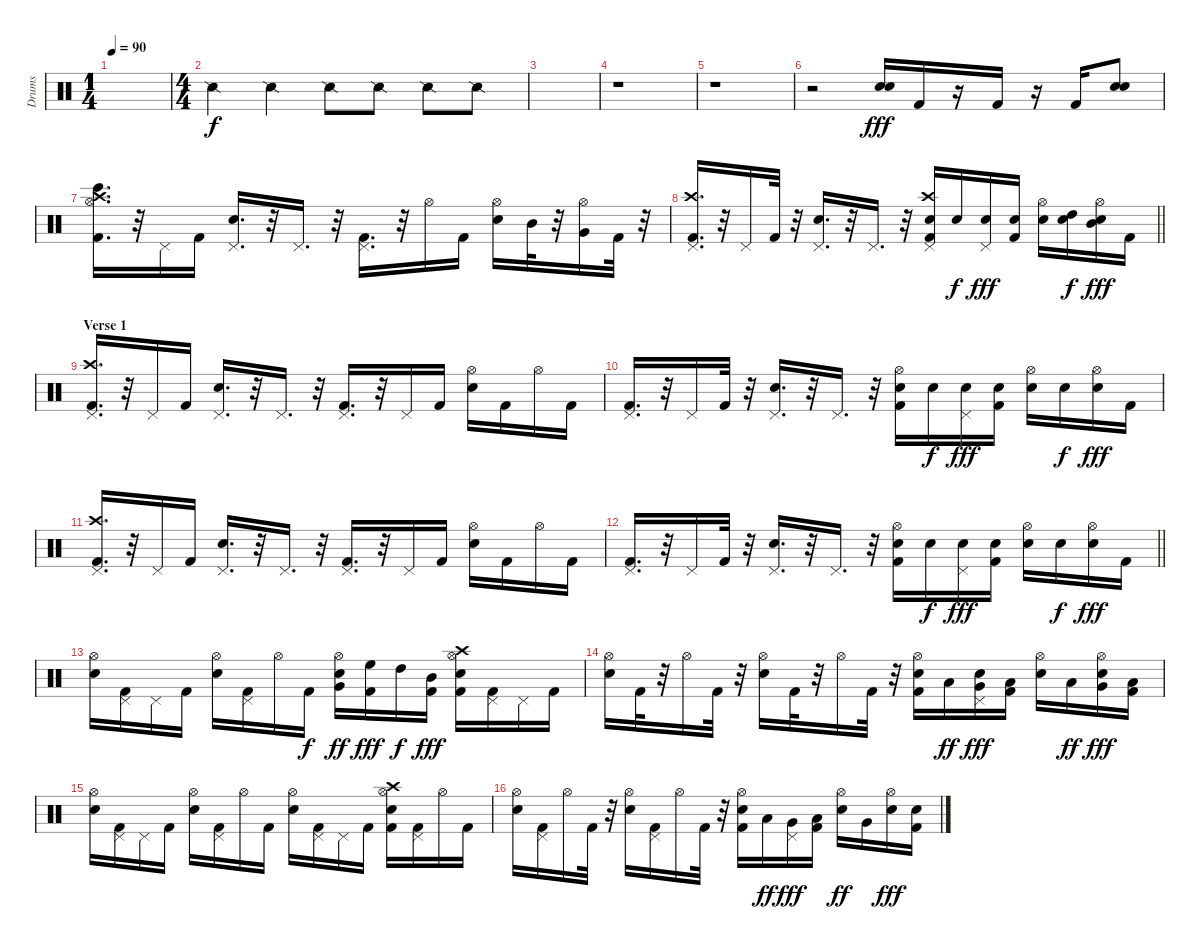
\track ("Drums" "Drums") {instrument percussion}
\staff {score}
\articulation defaults
\ts (1 4)
\tempo 90
\clef neutral
\ks c
|
\ts (4 4)
"Snare (side stick) 2".4 "Snare (side stick) 2".4 "Snare (side stick) 2".8 "Snare (side stick) 2".8 "Snare (side stick) 2".8 "Snare (side stick) 2".8 |
|
r.1 |
r.1 |
r.2 ("Electric Snare (hit)" "Electric Snare (hit)").16{dy fff} "Kick (hit) 2".16 r.16 "Kick (hit) 2".16 r.16 "Kick (hit) 2".16 ("Electric Snare (hit)" "Electric Snare (hit)").8 |
("Bongo High (hit)" "Crash high (hit)" "Kick (hit) 2" "Hi-Hat (open)").16{d} r.32 "Pedal Hi-Hat (hit)".16 "Kick (hit) 2".16 ("Electric Snare (hit)" "Pedal Hi-Hat (hit)").16{d} r.32 "Pedal Hi-Hat (hit)".16{d} r.32 ("Kick (hit) 2" "Pedal Hi-Hat (hit)").16{d} r.32 "Hi-Hat (open)".16 "Kick (hit) 2".16 ("Electric Snare (hit)" "Hi-Hat (open)").16 "Mid Tom (hit)".32 r.32 ("Hi-Hat (open)" "Very Low Tom (hit)").16 "Kick (hit) 2".32 r.32 |
\barLineRight lightlight
("Crash high (hit)" "Kick (hit) 2" "Pedal Hi-Hat (hit)").16{d} r.32 "Pedal Hi-Hat (hit)".16 "Kick (hit) 2".32 r.32 ("Electric Snare (hit)" "Pedal Hi-Hat (hit)").16{d} r.32 "Pedal Hi-Hat (hit)".16{d} r.32 ("Electric Snare (hit)" "Crash high (hit)" "Kick (hit) 2" "Pedal Hi-Hat (hit)").16 "Electric Snare (hit)".16{dy f} ("Electric Snare (hit)" "Pedal Hi-Hat (hit)").16{dy fff} ("Electric Snare (hit)" "Kick (hit) 2").16 ("Electric Snare (hit)" "Hi-Hat (open)").16 ("High Tom (hit)" "Electric Snare (hit)").16{dy f} ("Mid Tom (hit)" "Electric Snare (hit)" "Hi-Hat (open)").16{dy fff} "Kick (hit) 2".16 |
\section ("" "Verse 1")
("Crash high (hit)" "Kick (hit) 2" "Pedal Hi-Hat (hit)").16{d} r.32 "Pedal Hi-Hat (hit)".16 "Kick (hit) 2".16 ("Electric Snare (hit)" "Pedal Hi-Hat (hit)").16{d} r.32 "Pedal Hi-Hat (hit)".16{d} r.32 ("Pedal Hi-Hat (hit)" "Kick (hit) 2").16{d} r.32 "Pedal Hi-Hat (hit)".16 "Kick (hit) 2".16 ("Hi-Hat (open)" "Electric Snare (hit)").16 "Kick (hit) 2".16 "Hi-Hat (open)".16 "Kick (hit) 2".16 |
("Pedal Hi-Hat (hit)" "Kick (hit) 2").16{d} r.32 "Pedal Hi-Hat (hit)".16 "Kick (hit) 2".32 r.32 ("Pedal Hi-Hat (hit)" "Electric Snare (hit)").16{d} r.32 "Pedal Hi-Hat (hit)".16{d} r.32 ("Hi-Hat (open)" "Electric Snare (hit)" "Kick (hit) 2").16 "Electric Snare (hit)".16{dy f} ("Pedal Hi-Hat (hit)" "Electric Snare (hit)").16{dy fff} ("Electric Snare (hit)" "Kick (hit) 2").16 ("Hi-Hat (open)" "Electric Snare (hit)").16 "Electric Snare (hit)".16{dy f} ("Hi-Hat (open)" "Electric Snare (hit)").16{dy fff} "Kick (hit) 2".16 |
("Crash high (hit)" "Kick (hit) 2" "Pedal Hi-Hat (hit)").16{d} r.32 "Pedal Hi-Hat (hit)".16 "Kick (hit) 2".16 ("Electric Snare (hit)" "Pedal Hi-Hat (hit)").16{d} r.32 "Pedal Hi-Hat (hit)".16{d} r.32 ("Pedal Hi-Hat (hit)" "Kick (hit) 2").16{d} r.32 "Pedal Hi-Hat (hit)".16 "Kick (hit) 2".16 ("Hi-Hat (open)" "Electric Snare (hit)").16 "Kick (hit) 2".16 "Hi-Hat (open)".16 "Kick (hit) 2".16 |
\barLineRight lightlight
("Pedal Hi-Hat (hit)" "Kick (hit) 2").16{d} r.32 "Pedal Hi-Hat (hit)".16 "Kick (hit) 2".32 r.32 ("Pedal Hi-Hat (hit)" "Electric Snare (hit)").16{d} r.32 "Pedal Hi-Hat (hit)".16{d} r.32 ("Hi-Hat (open)" "Electric Snare (hit)" "Kick (hit) 2").16 "Electric Snare (hit)".16{dy f} ("Pedal Hi-Hat (hit)" "Electric Snare (hit)").16{dy fff} ("Electric Snare (hit)" "Kick (hit) 2").16 ("Hi-Hat (open)" "Electric Snare (hit)").16 "Electric Snare (hit)".16{dy f} ("Hi-Hat (open)" "Electric Snare (hit)").16{dy fff} "Kick (hit) 2".16 |
("Hi-Hat (open)" "Electric Snare (hit)").16 ("Kick (hit) 2" "Pedal Hi-Hat (hit)").16 "Pedal Hi-Hat (hit)".16 "Kick (hit) 2".16 ("Electric Snare (hit)" "Hi-Hat (open)").16 ("Kick (hit) 2" "Pedal Hi-Hat (hit)").16 "Hi-Hat (open)".16 "Kick (hit) 2".16{dy f} ("Electric Snare (hit)" "Hi-Hat (open)" "Very Low Tom (hit)").16{dy ff} ("Kick (hit) 2" "High Floor Tom (hit)").16{dy fff} "High Tom (hit)".16{dy f} ("Kick (hit) 2" "Mid Tom (hit)").16{dy fff} ("Kick (hit) 2" "Crash high (hit)" "Hi-Hat (open)" "Electric Snare (hit)").16 ("Kick (hit) 2" "Pedal Hi-Hat (hit)").16 "Pedal Hi-Hat (hit)".16 "Kick (hit) 2".16 |
("Hi-Hat (open)" "Electric Snare (hit)").16 "Kick (hit) 2".32 r.32 "Hi-Hat (open)".16 "Kick (hit) 2".32 r.32 ("Hi-Hat (open)" "Electric Snare (hit)").16 "Kick (hit) 2".32 r.32 "Hi-Hat (open)".16 "Kick (hit) 2".32 r.32 ("Hi-Hat (open)" "Electric Snare (hit)" "Kick (hit) 2").16 "Low Tom (hit)".16{dy ff} ("Electric Snare (hit)" "Pedal Hi-Hat (hit)" "Very Low Tom (hit)").16{dy fff} ("Low Floor Tom (hit)" "Kick (hit) 2").16 ("Hi-Hat (open)" "Electric Snare (hit)").16 "Low Tom (hit)".16{dy ff} ("Electric Snare (hit)" "Hi-Hat (open)" "Very Low Tom (hit)").16{dy fff} ("Low Floor Tom (hit)" "Kick (hit) 2").16 |
("Hi-Hat (open)" "Electric Snare (hit)").16 ("Pedal Hi-Hat (hit)" "Kick (hit) 2").16 "Pedal Hi-Hat (hit)".16 "Kick (hit) 2".16 ("Electric Snare (hit)" "Hi-Hat (open)").16 ("Pedal Hi-Hat (hit)" "Kick (hit) 2").16 "Hi-Hat (open)".16 "Kick (hit) 2".16 ("Electric Snare (hit)" "Hi-Hat (open)").16 ("Pedal Hi-Hat (hit)" "Kick (hit) 2").16 "Pedal Hi-Hat (hit)".16 "Kick (hit) 2".16 ("Kick (hit) 2" "Crash high (hit)" "Hi-Hat (open)" "Electric Snare (hit)").16 ("Pedal Hi-Hat (hit)" "Kick (hit) 2").16 "Hi-Hat (open)".16 "Kick (hit) 2".16 |
("Hi-Hat (open)" "Electric Snare (hit)").16 ("Pedal Hi-Hat (hit)" "Kick (hit) 2").16 "Hi-Hat (open)".16 "Kick (hit) 2".32 r.32 ("Hi-Hat (open)" "Electric Snare (hit)").16 ("Pedal Hi-Hat (hit)" "Kick (hit) 2").16 "Hi-Hat (open)".16 "Kick (hit) 2".32 r.32 ("Hi-Hat (open)" "Electric Snare (hit)" "Kick (hit) 2").16 "Low Tom (hit)".16{dy ff} ("Pedal Hi-Hat (hit)" "Very Low Tom (hit)").16{dy fff} ("Low Floor Tom (hit)" "Kick (hit) 2").16 ("Hi-Hat (open)" "Electric Snare (hit)").16{dy ff} "Very Low Tom (hit)".16 ("Hi-Hat (open)" "Electric Snare (hit)").16{dy fff} ("Electric Snare (hit)" "Kick (hit) 2").16
